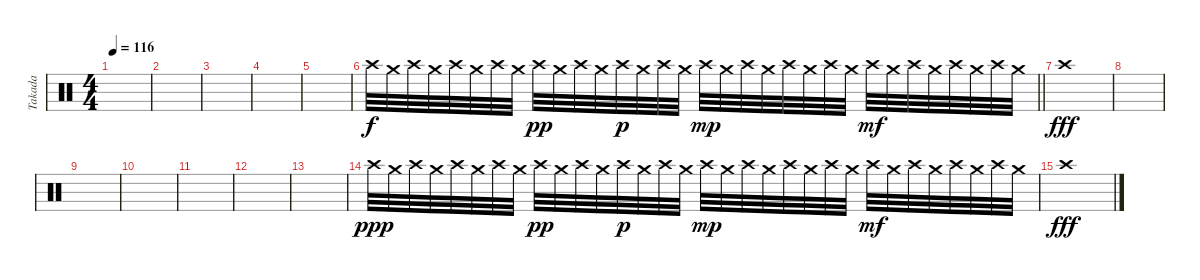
\track ("Takada" "Takada") {instrument percussion}
\staff {score}
\articulation defaults
\ts (4 4)
\tempo 116
\clef neutral
\ks c
|
|
|
|
|
\barLineRight lightlight "Crash high (hit)".32 "Crash medium (hit)".32 "Crash high (hit)".32 "Crash medium (hit)".32 "Crash high (hit)".32 "Crash medium (hit)".32 "Crash high (hit)".32 "Crash medium (hit)".32 "Crash high (hit)".32{dy pp} "Crash medium (hit)".32 "Crash high (hit)".32 "Crash medium (hit)".32 "Crash high (hit)".32{dy p} "Crash medium (hit)".32 "Crash high (hit)".32 "Crash medium (hit)".32 "Crash high (hit)".32{dy mp} "Crash medium (hit)".32 "Crash high (hit)".32 "Crash medium (hit)".32 "Crash high (hit)".32 "Crash medium (hit)".32 "Crash high (hit)".32 "Crash medium (hit)".32 "Crash high (hit)".32{dy mf} "Crash medium (hit)".32 "Crash high (hit)".32 "Crash medium (hit)".32 "Crash high (hit)".32 "Crash medium (hit)".32 "Crash high (hit)".32 "Crash medium (hit)".32
|
\section ("" "")
"Crash high (hit)".1{dy fff} |
|
|
|
|
|
|
"Crash high (hit)".32{dy ppp} "Crash medium (hit)".32 "Crash high (hit)".32 "Crash medium (hit)".32 "Crash high (hit)".32 "Crash medium (hit)".32 "Crash high (hit)".32 "Crash medium (hit)".32 "Crash high (hit)".32{dy pp} "Crash medium (hit)".32 "Crash high (hit)".32 "Crash medium (hit)".32 "Crash high (hit)".32{dy p} "Crash medium (hit)".32 "Crash high (hit)".32 "Crash medium (hit)".32 "Crash high (hit)".32{dy mp} "Crash medium (hit)".32 "Crash high (hit)".32 "Crash medium (hit)".32 "Crash high (hit)".32 "Crash medium (hit)".32 "Crash high (hit)".32 "Crash medium (hit)".32 "Crash high (hit)".32{dy mf} "Crash medium (hit)".32 "Crash high (hit)".32 "Crash medium (hit)".32 "Crash high (hit)".32 "Crash medium (hit)".32 "Crash high (hit)".32 "Crash medium (hit)".32 |
"Crash high (hit)".1{dy fff}
